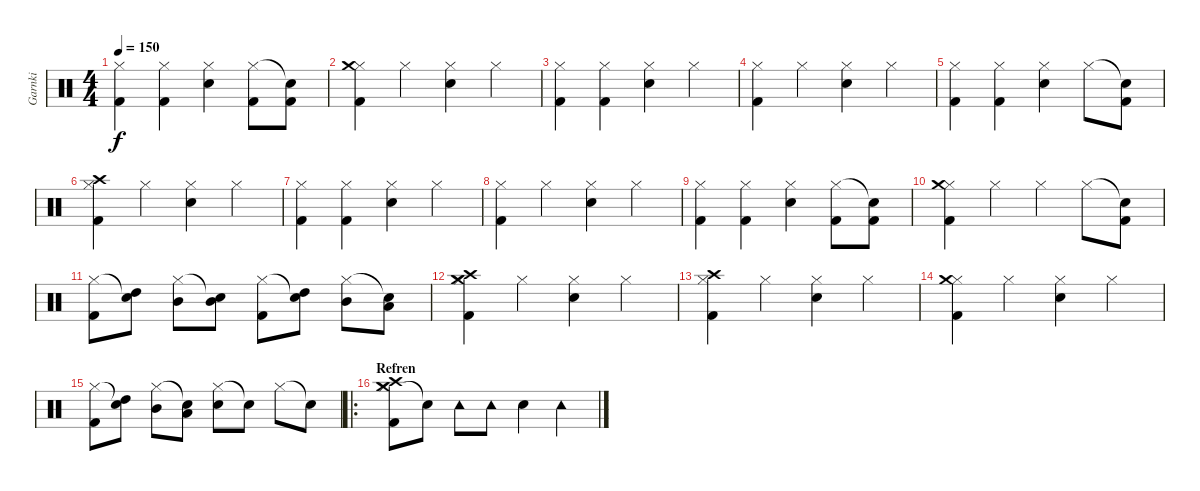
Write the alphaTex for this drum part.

\track ("Garnki" "Garnki") {instrument percussion}
\staff {score}
\articulation defaults
\ts (4 4)
\tempo 150
\clef neutral
\ks c
("Hi-Hat (closed)" "Kick (hit) 2").4{dy f} ("Hi-Hat (closed)" "Kick (hit) 2").4 ("Hi-Hat (closed)" "Snare (hit) 2").4 ("Hi-Hat (closed)" "Kick (hit) 2").8 ("Snare (hit)"{t} "Kick (hit) 2").8 |
("Hi-Hat (closed)" "Crash medium (hit)" "Kick (hit) 2").4 "Hi-Hat (closed)".4 ("Hi-Hat (closed)" "Snare (hit) 2").4 "Hi-Hat (closed)".4 |
("Hi-Hat (closed)" "Kick (hit) 2").4 ("Hi-Hat (closed)" "Kick (hit) 2").4 ("Hi-Hat (closed)" "Snare (hit) 2").4 "Hi-Hat (closed)".4 |
("Hi-Hat (closed)" "Kick (hit) 2").4 "Hi-Hat (closed)".4 ("Hi-Hat (closed)" "Snare (hit) 2").4 "Hi-Hat (closed)".4 |
("Hi-Hat (closed)" "Kick (hit) 2").4 ("Hi-Hat (closed)" "Kick (hit) 2").4 ("Hi-Hat (closed)" "Snare (hit) 2").4 "Hi-Hat (closed)".8 ("Snare (hit)"{t} "Kick (hit) 2").8 |
("Hi-Hat (closed)" "Crash high (hit)" "Kick (hit) 2").4 "Hi-Hat (closed)".4 ("Hi-Hat (closed)" "Snare (hit) 2").4 "Hi-Hat (closed)".4 |
("Hi-Hat (closed)" "Kick (hit) 2").4 ("Hi-Hat (closed)" "Kick (hit) 2").4 ("Hi-Hat (closed)" "Snare (hit) 2").4 "Hi-Hat (closed)".4 |
("Hi-Hat (closed)" "Kick (hit) 2").4 "Hi-Hat (closed)".4 ("Hi-Hat (closed)" "Snare (hit) 2").4 "Hi-Hat (closed)".4 |
("Hi-Hat (closed)" "Kick (hit) 2").4 ("Hi-Hat (closed)" "Kick (hit) 2").4 ("Hi-Hat (closed)" "Snare (hit) 2").4 ("Hi-Hat (closed)" "Kick (hit) 2").8 ("Snare (hit)"{t} "Kick (hit) 2").8 |
("Hi-Hat (closed)" "Crash medium (hit)" "Kick (hit) 2").4 "Hi-Hat (closed)".4 "Hi-Hat (closed)".4 "Hi-Hat (closed)".8 ("Snare (hit)"{t} "Kick (hit) 2").8 |
("Hi-Hat (closed)" "Kick (hit) 2").8 ("Snare (hit)"{t} "High Tom (hit)").8 ("Hi-Hat (closed)" "Mid Tom (hit)").8 ("Snare (hit)"{t} "Mid Tom (hit)").8 ("Hi-Hat (closed)" "Kick (hit) 2").8 ("Snare (hit)"{t} "High Tom (hit)").8 ("Hi-Hat (closed)" "Mid Tom (hit)").8 ("Snare (hit)"{t} "Low Tom (hit)").8 |
("Hi-Hat (closed)" "Crash high (hit)" "Kick (hit) 2" "Crash medium (hit)").4 "Hi-Hat (closed)".4 ("Hi-Hat (closed)" "Snare (hit) 2").4 "Hi-Hat (closed)".4 |
("Hi-Hat (closed)" "Crash high (hit)" "Kick (hit) 2").4 "Hi-Hat (closed)".4 ("Hi-Hat (closed)" "Snare (hit) 2").4 "Hi-Hat (closed)".4 |
("Hi-Hat (closed)" "Crash medium (hit)" "Kick (hit) 2").4 "Hi-Hat (closed)".4 ("Hi-Hat (closed)" "Snare (hit) 2").4 "Hi-Hat (closed)".4 |
("Hi-Hat (closed)" "Kick (hit) 2").8 ("Snare (hit)"{t} "High Tom (hit)").8 ("Hi-Hat (closed)" "Mid Tom (hit)").8 ("Snare (hit)"{t} "Low Tom (hit)").8 ("Hi-Hat (closed)" "Snare (hit) 2").8 "Snare (hit)"{t}.8 "Hi-Hat (closed)".8 "Snare (hit)"{t}.8 |
\ro
\section ("" "Refren")
("Hi-Hat (closed)" "Crash medium (hit)" "Kick (hit) 2" "Crash high (hit)").8 "Snare (hit)"{t}.8 "Tambourine (hit)".8 "Tambourine (hit)".8 "Snare (hit) 2".4 "Tambourine (hit)".4
